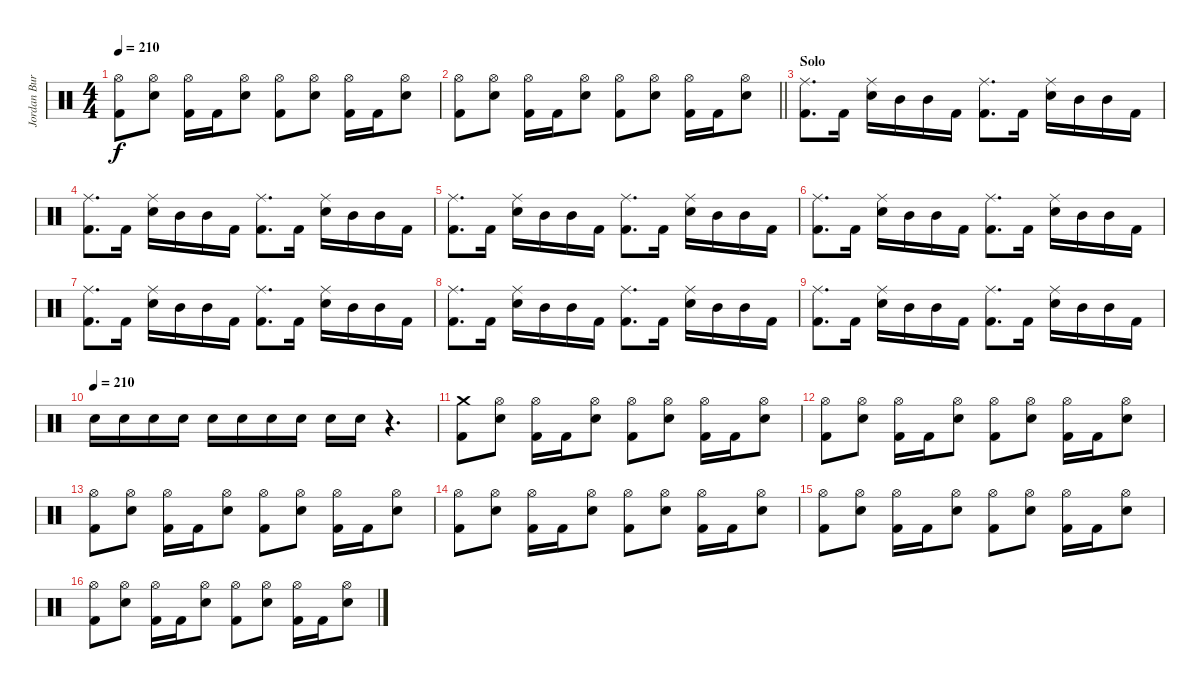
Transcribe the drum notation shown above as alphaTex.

\track ("Jordan Burns" "Jordan Bur") {instrument percussion}
\staff {score}
\articulation defaults
\ts (4 4)
\tempo 210
\clef neutral
\ks c
("Hi-Hat (open)" "Kick (hit) 2").8{dy f} ("Hi-Hat (open)" "Electric Snare (hit)").8 ("Hi-Hat (open)" "Kick (hit) 2").16 "Kick (hit) 2".16 ("Hi-Hat (open)" "Electric Snare (hit)").8 ("Hi-Hat (open)" "Kick (hit) 2").8 ("Hi-Hat (open)" "Electric Snare (hit)").8 ("Hi-Hat (open)" "Kick (hit) 2").16 "Kick (hit) 2".16 ("Hi-Hat (open)" "Electric Snare (hit)").8 |
\barLineRight lightlight
("Hi-Hat (open)" "Kick (hit) 2").8 ("Hi-Hat (open)" "Electric Snare (hit)").8 ("Hi-Hat (open)" "Kick (hit) 2").16 "Kick (hit) 2".16 ("Hi-Hat (open)" "Electric Snare (hit)").8 ("Hi-Hat (open)" "Kick (hit) 2").8 ("Hi-Hat (open)" "Electric Snare (hit)").8 ("Hi-Hat (open)" "Kick (hit) 2").16 "Kick (hit) 2".16 ("Hi-Hat (open)" "Electric Snare (hit)").8 |
\section ("" "Solo")
("Ride (middle)" "Kick (hit) 2").8{d} "Kick (hit) 2".16 ("Ride (middle)" "Electric Snare (hit)").16 "Mid Tom (hit)".16 "Mid Tom (hit)".16 "Kick (hit) 2".16 ("Ride (middle)" "Kick (hit) 2").8{d} "Kick (hit) 2".16 ("Ride (middle)" "Electric Snare (hit)").16 "Mid Tom (hit)".16 "Mid Tom (hit)".16 "Kick (hit) 2".16 |
("Ride (middle)" "Kick (hit) 2").8{d} "Kick (hit) 2".16 ("Ride (middle)" "Electric Snare (hit)").16 "Mid Tom (hit)".16 "Mid Tom (hit)".16 "Kick (hit) 2".16 ("Ride (middle)" "Kick (hit) 2").8{d} "Kick (hit) 2".16 ("Ride (middle)" "Electric Snare (hit)").16 "Mid Tom (hit)".16 "Mid Tom (hit)".16 "Kick (hit) 2".16 |
("Ride (middle)" "Kick (hit) 2").8{d} "Kick (hit) 2".16 ("Ride (middle)" "Electric Snare (hit)").16 "Mid Tom (hit)".16 "Mid Tom (hit)".16 "Kick (hit) 2".16 ("Ride (middle)" "Kick (hit) 2").8{d} "Kick (hit) 2".16 ("Ride (middle)" "Electric Snare (hit)").16 "Mid Tom (hit)".16 "Mid Tom (hit)".16 "Kick (hit) 2".16 |
("Ride (middle)" "Kick (hit) 2").8{d} "Kick (hit) 2".16 ("Ride (middle)" "Electric Snare (hit)").16 "Mid Tom (hit)".16 "Mid Tom (hit)".16 "Kick (hit) 2".16 ("Ride (middle)" "Kick (hit) 2").8{d} "Kick (hit) 2".16 ("Ride (middle)" "Electric Snare (hit)").16 "Mid Tom (hit)".16 "Mid Tom (hit)".16 "Kick (hit) 2".16 |
("Ride (middle)" "Kick (hit) 2").8{d} "Kick (hit) 2".16 ("Ride (middle)" "Electric Snare (hit)").16 "Mid Tom (hit)".16 "Mid Tom (hit)".16 "Kick (hit) 2".16 ("Ride (middle)" "Kick (hit) 2").8{d} "Kick (hit) 2".16 ("Ride (middle)" "Electric Snare (hit)").16 "Mid Tom (hit)".16 "Mid Tom (hit)".16 "Kick (hit) 2".16 |
("Ride (middle)" "Kick (hit) 2").8{d} "Kick (hit) 2".16 ("Ride (middle)" "Electric Snare (hit)").16 "Mid Tom (hit)".16 "Mid Tom (hit)".16 "Kick (hit) 2".16 ("Ride (middle)" "Kick (hit) 2").8{d} "Kick (hit) 2".16 ("Ride (middle)" "Electric Snare (hit)").16 "Mid Tom (hit)".16 "Mid Tom (hit)".16 "Kick (hit) 2".16 |
("Ride (middle)" "Kick (hit) 2").8{d} "Kick (hit) 2".16 ("Ride (middle)" "Electric Snare (hit)").16 "Mid Tom (hit)".16 "Mid Tom (hit)".16 "Kick (hit) 2".16 ("Ride (middle)" "Kick (hit) 2").8{d} "Kick (hit) 2".16 ("Ride (middle)" "Electric Snare (hit)").16 "Mid Tom (hit)".16 "Mid Tom (hit)".16 "Kick (hit) 2".16 |
\tempo (210)
"Electric Snare (hit)".16 "Electric Snare (hit)".16 "Electric Snare (hit)".16 "Electric Snare (hit)".16 "Electric Snare (hit)".16 "Electric Snare (hit)".16 "Electric Snare (hit)".16 "Electric Snare (hit)".16 "Electric Snare (hit)".16 "Electric Snare (hit)".16 r.4{d} |
("Crash medium (hit)" "Kick (hit) 2").8 ("Hi-Hat (open)" "Electric Snare (hit)").8 ("Hi-Hat (open)" "Kick (hit) 2").16 "Kick (hit) 2".16 ("Hi-Hat (open)" "Electric Snare (hit)").8 ("Hi-Hat (open)" "Kick (hit) 2").8 ("Hi-Hat (open)" "Electric Snare (hit)").8 ("Hi-Hat (open)" "Kick (hit) 2").16 "Kick (hit) 2".16 ("Hi-Hat (open)" "Electric Snare (hit)").8 |
("Hi-Hat (open)" "Kick (hit) 2").8 ("Hi-Hat (open)" "Electric Snare (hit)").8 ("Hi-Hat (open)" "Kick (hit) 2").16 "Kick (hit) 2".16 ("Hi-Hat (open)" "Electric Snare (hit)").8 ("Hi-Hat (open)" "Kick (hit) 2").8 ("Hi-Hat (open)" "Electric Snare (hit)").8 ("Hi-Hat (open)" "Kick (hit) 2").16 "Kick (hit) 2".16 ("Hi-Hat (open)" "Electric Snare (hit)").8 |
("Hi-Hat (open)" "Kick (hit) 2").8 ("Hi-Hat (open)" "Electric Snare (hit)").8 ("Hi-Hat (open)" "Kick (hit) 2").16 "Kick (hit) 2".16 ("Hi-Hat (open)" "Electric Snare (hit)").8 ("Hi-Hat (open)" "Kick (hit) 2").8 ("Hi-Hat (open)" "Electric Snare (hit)").8 ("Hi-Hat (open)" "Kick (hit) 2").16 "Kick (hit) 2".16 ("Hi-Hat (open)" "Electric Snare (hit)").8 |
("Hi-Hat (open)" "Kick (hit) 2").8 ("Hi-Hat (open)" "Electric Snare (hit)").8 ("Hi-Hat (open)" "Kick (hit) 2").16 "Kick (hit) 2".16 ("Hi-Hat (open)" "Electric Snare (hit)").8 ("Hi-Hat (open)" "Kick (hit) 2").8 ("Hi-Hat (open)" "Electric Snare (hit)").8 ("Hi-Hat (open)" "Kick (hit) 2").16 "Kick (hit) 2".16 ("Hi-Hat (open)" "Electric Snare (hit)").8 |
("Hi-Hat (open)" "Kick (hit) 2").8 ("Hi-Hat (open)" "Electric Snare (hit)").8 ("Hi-Hat (open)" "Kick (hit) 2").16 "Kick (hit) 2".16 ("Hi-Hat (open)" "Electric Snare (hit)").8 ("Hi-Hat (open)" "Kick (hit) 2").8 ("Hi-Hat (open)" "Electric Snare (hit)").8 ("Hi-Hat (open)" "Kick (hit) 2").16 "Kick (hit) 2".16 ("Hi-Hat (open)" "Electric Snare (hit)").8 |
("Hi-Hat (open)" "Kick (hit) 2").8 ("Hi-Hat (open)" "Electric Snare (hit)").8 ("Hi-Hat (open)" "Kick (hit) 2").16 "Kick (hit) 2".16 ("Hi-Hat (open)" "Electric Snare (hit)").8 ("Hi-Hat (open)" "Kick (hit) 2").8 ("Hi-Hat (open)" "Electric Snare (hit)").8 ("Hi-Hat (open)" "Kick (hit) 2").16 "Kick (hit) 2".16 ("Hi-Hat (open)" "Electric Snare (hit)").8
